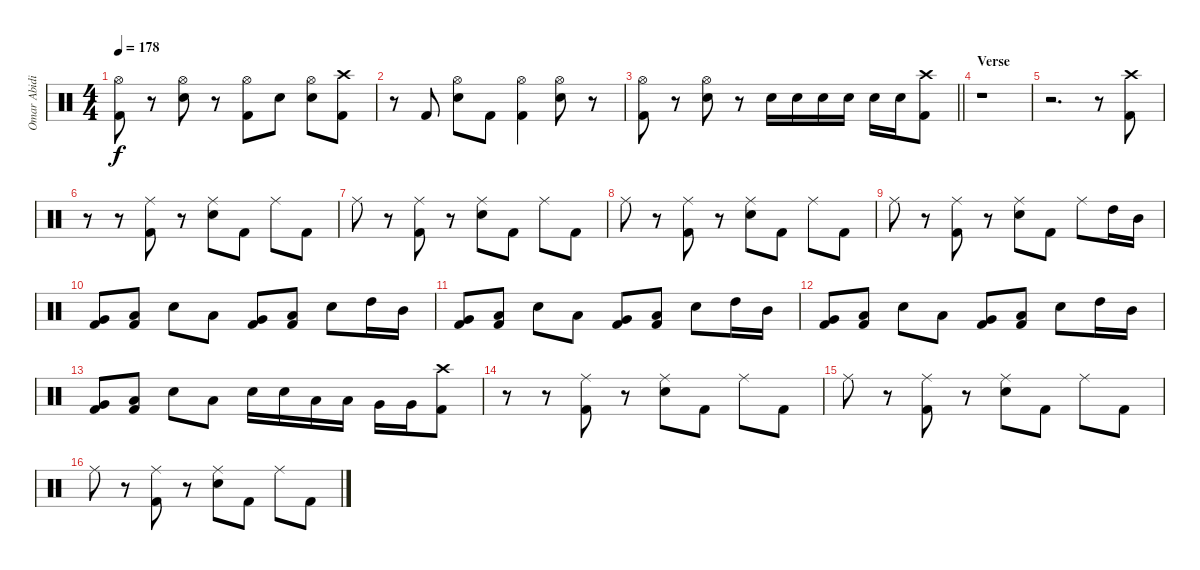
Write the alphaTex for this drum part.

\track ("Omar Abidi" "Omar Abidi") {instrument percussion}
\staff {score}
\articulation defaults
\ts (4 4)
\tempo 178
\clef neutral
\ks c
("Hi-Hat (open)" "Kick (hit) 2").8{dy f} r.8 ("Hi-Hat (open)" "Electric Snare (hit)").8 r.8 ("Hi-Hat (open)" "Kick (hit) 2").8 "Electric Snare (hit)".8 ("Hi-Hat (open)" "Electric Snare (hit)").8 ("Crash high (hit)" "Kick (hit) 2").8 |
r.8 "Kick (hit) 2".8 ("Hi-Hat (open)" "Electric Snare (hit)").8 "Kick (hit) 2".8 ("Hi-Hat (open)" "Kick (hit) 2").4 ("Hi-Hat (open)" "Electric Snare (hit)").8 r.8 |
\barLineRight lightlight
("Hi-Hat (open)" "Kick (hit) 2").8 r.8 ("Hi-Hat (open)" "Electric Snare (hit)").8 r.8 "Electric Snare (hit)".16 "Electric Snare (hit)".16 "Electric Snare (hit)".16 "Electric Snare (hit)".16 "Electric Snare (hit)".16 "Electric Snare (hit)".16 ("Crash high (hit)" "Kick (hit) 2").8 |
\section ("" "Verse")
r.1 |
r.2{d} r.8 ("Crash high (hit)" "Kick (hit) 2").8 |
r.8 r.8 ("Ride (middle)" "Kick (hit) 2").8 r.8 ("Ride (middle)" "Electric Snare (hit)").8 "Kick (hit) 2".8 "Ride (middle)".8 "Kick (hit) 2".8 |
"Ride (middle)".8 r.8 ("Ride (middle)" "Kick (hit) 2").8 r.8 ("Ride (middle)" "Electric Snare (hit)").8 "Kick (hit) 2".8 "Ride (middle)".8 "Kick (hit) 2".8 |
"Ride (middle)".8 r.8 ("Ride (middle)" "Kick (hit) 2").8 r.8 ("Ride (middle)" "Electric Snare (hit)").8 "Kick (hit) 2".8 "Ride (middle)".8 "Kick (hit) 2".8 |
"Ride (middle)".8 r.8 ("Ride (middle)" "Kick (hit) 2").8 r.8 ("Ride (middle)" "Electric Snare (hit)").8 "Kick (hit) 2".8 "Ride (middle)".8 "High Tom (hit)".16 "Mid Tom (hit)".16 |
("Very Low Tom (hit)" "Kick (hit) 2").8 ("Low Floor Tom (hit)" "Kick (hit) 2").8 "Electric Snare (hit)".8 "Low Floor Tom (hit)".8 ("Very Low Tom (hit)" "Kick (hit) 2").8 ("Low Floor Tom (hit)" "Kick (hit) 2").8 "Electric Snare (hit)".8 "High Tom (hit)".16 "Mid Tom (hit)".16 |
("Very Low Tom (hit)" "Kick (hit) 2").8 ("Low Floor Tom (hit)" "Kick (hit) 2").8 "Electric Snare (hit)".8 "Low Floor Tom (hit)".8 ("Very Low Tom (hit)" "Kick (hit) 2").8 ("Low Floor Tom (hit)" "Kick (hit) 2").8 "Electric Snare (hit)".8 "High Tom (hit)".16 "Mid Tom (hit)".16 |
("Very Low Tom (hit)" "Kick (hit) 2").8 ("Low Floor Tom (hit)" "Kick (hit) 2").8 "Electric Snare (hit)".8 "Low Floor Tom (hit)".8 ("Very Low Tom (hit)" "Kick (hit) 2").8 ("Low Floor Tom (hit)" "Kick (hit) 2").8 "Electric Snare (hit)".8 "High Tom (hit)".16 "Mid Tom (hit)".16 |
("Very Low Tom (hit)" "Kick (hit) 2").8 ("Low Floor Tom (hit)" "Kick (hit) 2").8 "Electric Snare (hit)".8 "Low Floor Tom (hit)".8 "Electric Snare (hit)".16 "Electric Snare (hit)".16 "Low Tom (hit)".16 "Low Tom (hit)".16 "Very Low Tom (hit)".16 "Very Low Tom (hit)".16 ("Crash high (hit)" "Kick (hit) 2").8 |
r.8 r.8 ("Ride (middle)" "Kick (hit) 2").8 r.8 ("Ride (middle)" "Electric Snare (hit)").8 "Kick (hit) 2".8 "Ride (middle)".8 "Kick (hit) 2".8 |
"Ride (middle)".8 r.8 ("Ride (middle)" "Kick (hit) 2").8 r.8 ("Ride (middle)" "Electric Snare (hit)").8 "Kick (hit) 2".8 "Ride (middle)".8 "Kick (hit) 2".8 |
"Ride (middle)".8 r.8 ("Ride (middle)" "Kick (hit) 2").8 r.8 ("Ride (middle)" "Electric Snare (hit)").8 "Kick (hit) 2".8 "Ride (middle)".8 "Kick (hit) 2".8
